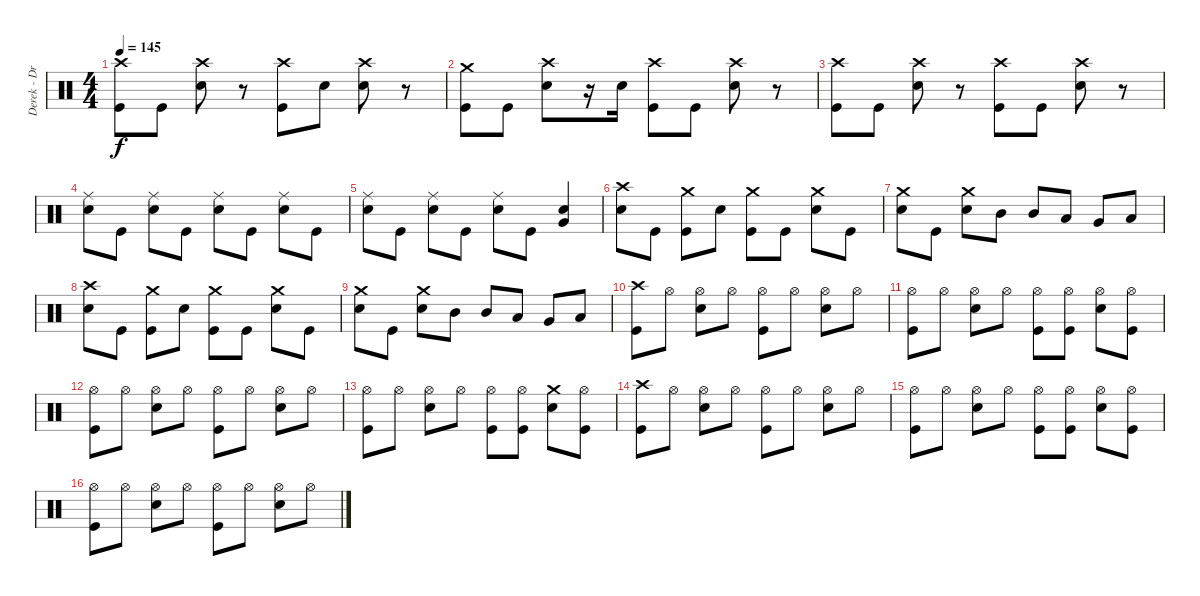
\track ("Derek - Drums" "Derek - Dr") {instrument percussion}
\staff {score}
\articulation defaults
\ts (4 4)
\tempo 145
\clef neutral
\ks c
("Crash high (hit)" "Kick (hit)").8{dy f} "Kick (hit)".8 ("Crash high (hit)" "Electric Snare (hit)").8 r.8 ("Crash high (hit)" "Kick (hit)").8 "Electric Snare (hit)".8 ("Crash high (hit)" "Electric Snare (hit)").8 r.8 |
("Crash medium (hit)" "Kick (hit)").8 "Kick (hit)".8 ("Crash high (hit)" "Electric Snare (hit)").8 r.16 "Electric Snare (hit)".16 ("Crash high (hit)" "Kick (hit)").8 "Kick (hit)".8 ("Crash high (hit)" "Electric Snare (hit)").8 r.8 |
("Crash high (hit)" "Kick (hit)").8 "Kick (hit)".8 ("Crash high (hit)" "Electric Snare (hit)").8 r.8 ("Crash high (hit)" "Kick (hit)").8 "Kick (hit)".8 ("Crash high (hit)" "Electric Snare (hit)").8 r.8 |
("Ride (middle)" "Electric Snare (hit)").8 "Kick (hit)".8 ("Ride (middle)" "Electric Snare (hit)").8 "Kick (hit)".8 ("Ride (middle)" "Electric Snare (hit)").8 "Kick (hit)".8 ("Ride (middle)" "Electric Snare (hit)").8 "Kick (hit)".8 |
("Ride (middle)" "Electric Snare (hit)").8 "Kick (hit)".8 ("Ride (middle)" "Electric Snare (hit)").8 "Kick (hit)".8 ("Ride (middle)" "Electric Snare (hit)").8 "Kick (hit)".8 ("Electric Snare (hit)" "Very Low Tom (hit)").4 |
("Crash high (hit)" "Electric Snare (hit)").8 "Kick (hit)".8 ("Crash medium (hit)" "Kick (hit)").8 "Electric Snare (hit)".8 ("Crash medium (hit)" "Kick (hit)").8 "Kick (hit)".8 ("Crash medium (hit)" "Electric Snare (hit)").8 "Kick (hit)".8 |
("Crash medium (hit)" "Electric Snare (hit)").8 "Kick (hit)".8 ("Crash medium (hit)" "Electric Snare (hit)").8 "Mid Tom (hit)".8 "Mid Tom (hit)".8 "Low Tom (hit)".8 "Very Low Tom (hit)".8 "Low Floor Tom (hit)".8 |
("Crash high (hit)" "Electric Snare (hit)").8 "Kick (hit)".8 ("Crash medium (hit)" "Kick (hit)").8 "Electric Snare (hit)".8 ("Crash medium (hit)" "Kick (hit)").8 "Kick (hit)".8 ("Crash medium (hit)" "Electric Snare (hit)").8 "Kick (hit)".8 |
("Crash medium (hit)" "Electric Snare (hit)").8 "Kick (hit)".8 ("Crash medium (hit)" "Electric Snare (hit)").8 "Mid Tom (hit)".8 "Mid Tom (hit)".8 "Low Tom (hit)".8 "Very Low Tom (hit)".8 "Low Floor Tom (hit)".8 |
("Crash high (hit)" "Kick (hit)").8 "Hi-Hat (open)".8 ("Hi-Hat (open)" "Electric Snare (hit)").8 "Hi-Hat (open)".8 ("Hi-Hat (open)" "Kick (hit)").8 "Hi-Hat (open)".8 ("Hi-Hat (open)" "Electric Snare (hit)").8 "Hi-Hat (open)".8 |
("Hi-Hat (open)" "Kick (hit)").8 "Hi-Hat (open)".8 ("Hi-Hat (open)" "Electric Snare (hit)").8 "Hi-Hat (open)".8 ("Hi-Hat (open)" "Kick (hit)").8 ("Hi-Hat (open)" "Kick (hit)").8 ("Hi-Hat (open)" "Electric Snare (hit)").8 ("Hi-Hat (open)" "Kick (hit)").8 |
("Hi-Hat (open)" "Kick (hit)").8 "Hi-Hat (open)".8 ("Hi-Hat (open)" "Electric Snare (hit)").8 "Hi-Hat (open)".8 ("Hi-Hat (open)" "Kick (hit)").8 "Hi-Hat (open)".8 ("Hi-Hat (open)" "Electric Snare (hit)").8 "Hi-Hat (open)".8 |
("Hi-Hat (open)" "Kick (hit)").8 "Hi-Hat (open)".8 ("Hi-Hat (open)" "Electric Snare (hit)").8 "Hi-Hat (open)".8 ("Hi-Hat (open)" "Kick (hit)").8 ("Hi-Hat (open)" "Kick (hit)").8 ("Crash medium (hit)" "Electric Snare (hit)").8 ("Hi-Hat (open)" "Kick (hit)").8 |
("Crash high (hit)" "Kick (hit)").8 "Hi-Hat (open)".8 ("Hi-Hat (open)" "Electric Snare (hit)").8 "Hi-Hat (open)".8 ("Hi-Hat (open)" "Kick (hit)").8 "Hi-Hat (open)".8 ("Hi-Hat (open)" "Electric Snare (hit)").8 "Hi-Hat (open)".8 |
("Hi-Hat (open)" "Kick (hit)").8 "Hi-Hat (open)".8 ("Hi-Hat (open)" "Electric Snare (hit)").8 "Hi-Hat (open)".8 ("Hi-Hat (open)" "Kick (hit)").8 ("Hi-Hat (open)" "Kick (hit)").8 ("Hi-Hat (open)" "Electric Snare (hit)").8 ("Hi-Hat (open)" "Kick (hit)").8 |
("Hi-Hat (open)" "Kick (hit)").8 "Hi-Hat (open)".8 ("Hi-Hat (open)" "Electric Snare (hit)").8 "Hi-Hat (open)".8 ("Hi-Hat (open)" "Kick (hit)").8 "Hi-Hat (open)".8 ("Hi-Hat (open)" "Electric Snare (hit)").8 "Hi-Hat (open)".8
